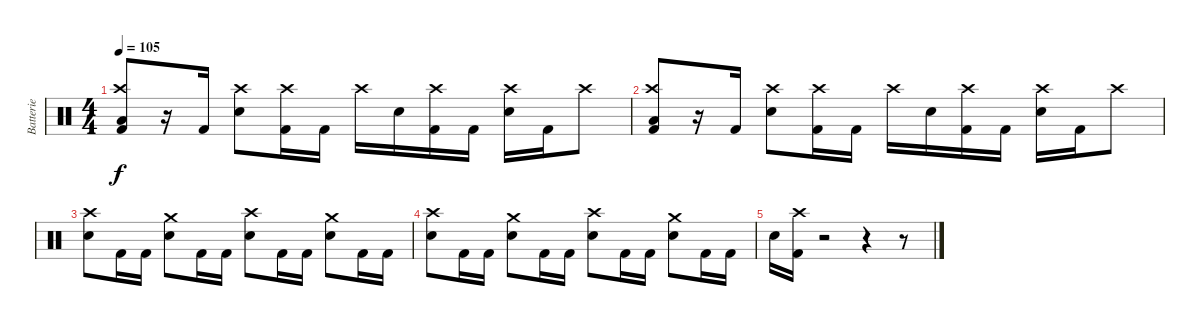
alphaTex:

\track ("Batterie" "Batterie") {instrument percussion}
\staff {score}
\articulation defaults
\ts (4 4)
\tempo 105
\clef neutral
\ks c
("Low Floor Tom (hit)" "Crash high (hit)" "Kick (hit) 2").8{dy f} r.16 "Kick (hit) 2".16 ("Crash high (hit)" "Electric Snare (hit)").8 ("Crash high (hit)" "Kick (hit) 2").16 "Kick (hit) 2".16 "Crash high (hit)".16 "Electric Snare (hit)".16 ("Crash high (hit)" "Kick (hit) 2").16 "Kick (hit) 2".16 ("Crash high (hit)" "Electric Snare (hit)").16 "Kick (hit) 2".16 "Crash high (hit)".8 |
("Low Floor Tom (hit)" "Crash high (hit)" "Kick (hit) 2").8 r.16 "Kick (hit) 2".16 ("Crash high (hit)" "Electric Snare (hit)").8 ("Crash high (hit)" "Kick (hit) 2").16 "Kick (hit) 2".16 "Crash high (hit)".16 "Electric Snare (hit)".16 ("Crash high (hit)" "Kick (hit) 2").16 "Kick (hit) 2".16 ("Crash high (hit)" "Electric Snare (hit)").16 "Kick (hit) 2".16 "Crash high (hit)".8 |
("Crash high (hit)" "Electric Snare (hit)").8 "Kick (hit) 2".16 "Kick (hit) 2".16 ("Crash medium (hit)" "Electric Snare (hit)").8 "Kick (hit) 2".16 "Kick (hit) 2".16 ("Crash high (hit)" "Electric Snare (hit)").8 "Kick (hit) 2".16 "Kick (hit) 2".16 ("Crash medium (hit)" "Electric Snare (hit)").8 "Kick (hit) 2".16 "Kick (hit) 2".16 |
("Crash high (hit)" "Electric Snare (hit)").8 "Kick (hit) 2".16 "Kick (hit) 2".16 ("Crash medium (hit)" "Electric Snare (hit)").8 "Kick (hit) 2".16 "Kick (hit) 2".16 ("Crash high (hit)" "Electric Snare (hit)").8 "Kick (hit) 2".16 "Kick (hit) 2".16 ("Crash medium (hit)" "Electric Snare (hit)").8 "Kick (hit) 2".16 "Kick (hit) 2".16 |
"Electric Snare (hit)".16 ("Crash high (hit)" "Kick (hit) 2").16 r.2 r.4 r.8
